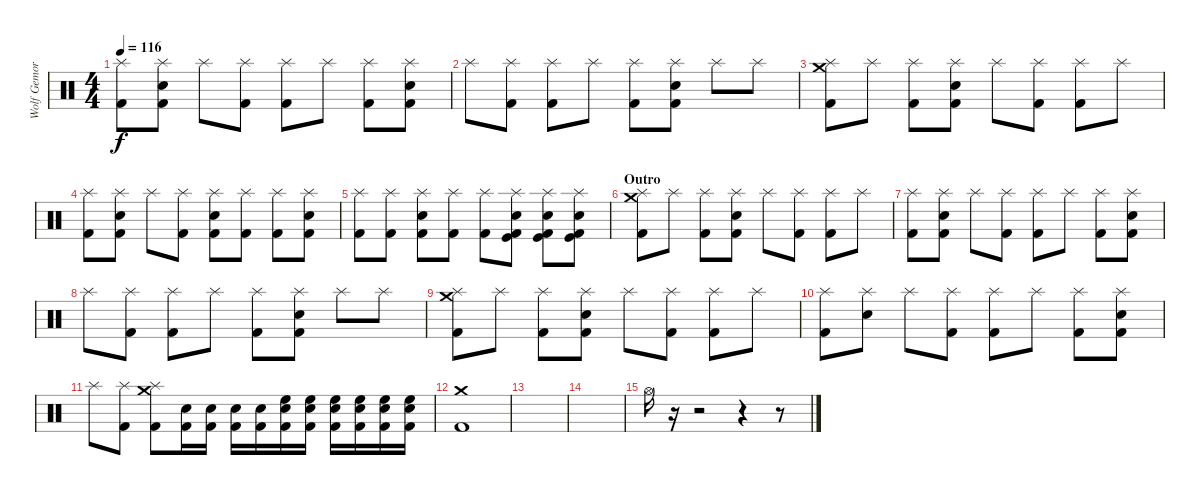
\track ("Wolf Gemora" "Wolf Gemor") {instrument percussion}
\staff {score}
\articulation defaults
\ts (4 4)
\tempo 116
\clef neutral
\ks c
("Splash (hit)" "Kick (hit) 2").8{dy f} ("Snare (hit) 2" "Splash (hit)" "Kick (hit) 2").8 "Splash (hit)".8 ("Splash (hit)" "Kick (hit) 2").8 ("Splash (hit)" "Kick (hit) 2").8 "Splash (hit)".8 ("Splash (hit)" "Kick (hit) 2").8 ("Snare (hit) 2" "Splash (hit)" "Kick (hit) 2").8 |
"Splash (hit)".8 ("Splash (hit)" "Kick (hit) 2").8 ("Splash (hit)" "Kick (hit) 2").8 "Splash (hit)".8 ("Splash (hit)" "Kick (hit) 2").8 ("Snare (hit) 2" "Splash (hit)" "Kick (hit) 2").8 "Splash (hit)".8 "Splash (hit)".8 |
("Crash medium (hit)" "Splash (hit)" "Kick (hit) 2").8 "Splash (hit)".8 ("Splash (hit)" "Kick (hit) 2").8 ("Snare (hit) 2" "Splash (hit)" "Kick (hit) 2").8 "Splash (hit)".8 ("Splash (hit)" "Kick (hit) 2").8 ("Splash (hit)" "Kick (hit) 2").8 "Splash (hit)".8 |
("Splash (hit)" "Kick (hit) 2").8 ("Snare (hit) 2" "Splash (hit)" "Kick (hit) 2").8 "Splash (hit)".8 ("Splash (hit)" "Kick (hit) 2").8 ("Snare (hit) 2" "Splash (hit)" "Kick (hit) 2").8 ("Splash (hit)" "Kick (hit) 2").8 ("Splash (hit)" "Kick (hit) 2").8 ("Snare (hit) 2" "Splash (hit)" "Kick (hit) 2").8 |
("Splash (hit)" "Kick (hit) 2").8 ("Splash (hit)" "Kick (hit) 2").8 ("Snare (hit) 2" "Splash (hit)" "Kick (hit) 2").8 ("Splash (hit)" "Kick (hit) 2").8 ("Splash (hit)" "Kick (hit) 2").8 ("Splash (hit)" "Snare (hit) 2" "Kick (hit)" "Kick (hit) 2").8 ("Splash (hit)" "Snare (hit) 2" "Kick (hit)" "Kick (hit) 2").8 ("Splash (hit)" "Snare (hit) 2" "Kick (hit)" "Kick (hit) 2").8 |
\section ("" "Outro")
("Crash medium (hit)" "Splash (hit)" "Kick (hit) 2").8 "Splash (hit)".8 ("Splash (hit)" "Kick (hit) 2").8 ("Snare (hit) 2" "Splash (hit)" "Kick (hit) 2").8 "Splash (hit)".8 ("Splash (hit)" "Kick (hit) 2").8 ("Splash (hit)" "Kick (hit) 2").8 "Splash (hit)".8 |
("Splash (hit)" "Kick (hit) 2").8 ("Snare (hit) 2" "Splash (hit)" "Kick (hit) 2").8 "Splash (hit)".8 ("Splash (hit)" "Kick (hit) 2").8 ("Splash (hit)" "Kick (hit) 2").8 "Splash (hit)".8 ("Splash (hit)" "Kick (hit) 2").8 ("Snare (hit) 2" "Splash (hit)" "Kick (hit) 2").8 |
"Splash (hit)".8 ("Splash (hit)" "Kick (hit) 2").8 ("Splash (hit)" "Kick (hit) 2").8 "Splash (hit)".8 ("Splash (hit)" "Kick (hit) 2").8 ("Snare (hit) 2" "Splash (hit)" "Kick (hit) 2").8 "Splash (hit)".8 "Splash (hit)".8 |
("Crash medium (hit)" "Splash (hit)" "Kick (hit) 2").8 "Splash (hit)".8 ("Splash (hit)" "Kick (hit) 2").8 ("Snare (hit) 2" "Splash (hit)" "Kick (hit) 2").8 "Splash (hit)".8 ("Splash (hit)" "Kick (hit) 2").8 ("Splash (hit)" "Kick (hit) 2").8 "Splash (hit)".8 |
("Splash (hit)" "Kick (hit) 2").8 ("Snare (hit) 2" "Splash (hit)").8 "Splash (hit)".8 ("Splash (hit)" "Kick (hit) 2").8 ("Splash (hit)" "Kick (hit) 2").8 "Splash (hit)".8 ("Splash (hit)" "Kick (hit) 2").8 ("Snare (hit) 2" "Splash (hit)" "Kick (hit) 2").8 |
"Splash (hit)".8 ("Splash (hit)" "Kick (hit) 2").8 ("Crash medium (hit)" "Splash (hit)" "Kick (hit) 2").8 ("Snare (hit) 2" "Kick (hit) 2").16 ("Snare (hit) 2" "Kick (hit) 2").16 ("Snare (hit) 2" "Kick (hit) 2").16 ("Snare (hit) 2" "Kick (hit) 2").16 ("Snare (hit) 2" "High Floor Tom (hit)" "Kick (hit) 2").16 ("Snare (hit) 2" "High Floor Tom (hit)" "Kick (hit) 2").16 ("Snare (hit) 2" "High Floor Tom (hit)" "Kick (hit) 2").16 ("Snare (hit) 2" "High Floor Tom (hit)" "Kick (hit) 2").16 ("Snare (hit) 2" "High Floor Tom (hit)" "Kick (hit) 2").16 ("Snare (hit) 2" "High Floor Tom (hit)" "Kick (hit) 2").16 |
("Crash medium (hit)" "Kick (hit) 2").1 |
|
|
"Hi-Hat (open)".16{volume 8} r.16 r.2 r.4 r.8
